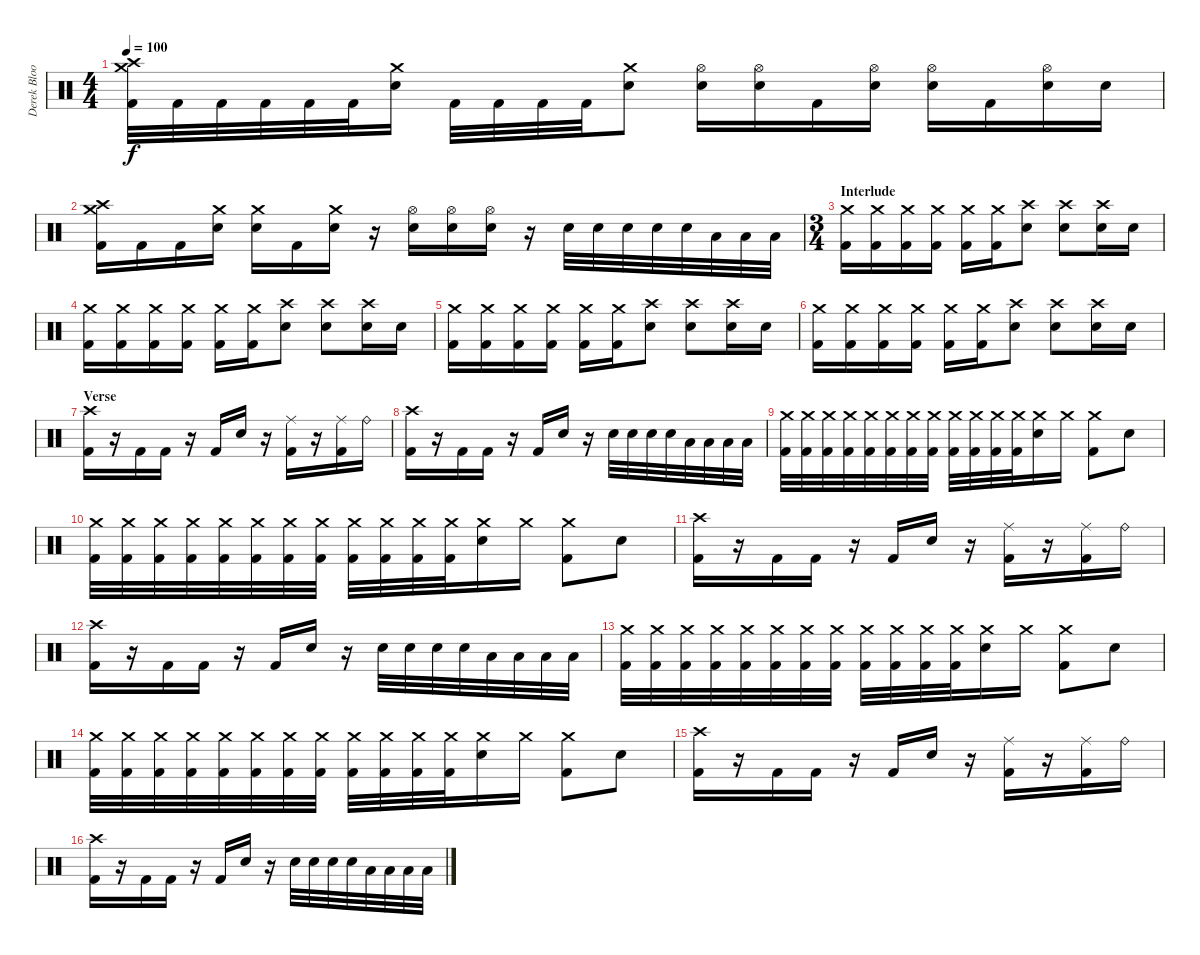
\track ("Derek Bloom (Drums)" "Derek Bloo") {instrument percussion}
\staff {score}
\articulation defaults
\ts (4 4)
\tempo 100
\clef neutral
\ks c
("Crash medium (hit)" "Crash high (hit)" "Kick (hit) 2").32{dy f} "Kick (hit) 2".32 "Kick (hit) 2".32 "Kick (hit) 2".32 "Kick (hit) 2".32 "Kick (hit) 2".32 ("Crash medium (hit)" "Electric Snare (hit)").16 "Kick (hit) 2".32 "Kick (hit) 2".32 "Kick (hit) 2".32 "Kick (hit) 2".32 ("Crash medium (hit)" "Electric Snare (hit)").8 ("Hi-Hat (open)" "Electric Snare (hit)").16 ("Hi-Hat (open)" "Electric Snare (hit)").16 "Kick (hit) 2".16 ("Hi-Hat (open)" "Electric Snare (hit)").16 ("Hi-Hat (open)" "Electric Snare (hit)").16 "Kick (hit) 2".16 ("Hi-Hat (open)" "Electric Snare (hit)").16 "Electric Snare (hit)".16 |
("Crash medium (hit)" "Crash high (hit)" "Kick (hit) 2").16 "Kick (hit) 2".16 "Kick (hit) 2".16 ("Crash medium (hit)" "Electric Snare (hit)").16 ("Crash medium (hit)" "Electric Snare (hit)").16 "Kick (hit) 2".16 ("Crash medium (hit)" "Electric Snare (hit)").16 r.16 ("Hi-Hat (open)" "Electric Snare (hit)").16 ("Hi-Hat (open)" "Electric Snare (hit)").16 ("Hi-Hat (open)" "Electric Snare (hit)").16 r.16 "Electric Snare (hit)".32 "Electric Snare (hit)".32 "Electric Snare (hit)".32 "Electric Snare (hit)".32 "Electric Snare (hit)".32 "Low Tom (hit)".32 "Low Tom (hit)".32 "Low Tom (hit)".32 |
\ts (3 4)
\section ("" "Interlude")
("Crash medium (hit)" "Kick (hit) 2").16 ("Crash medium (hit)" "Kick (hit) 2").16 ("Crash medium (hit)" "Kick (hit) 2").16 ("Crash medium (hit)" "Kick (hit) 2").16 ("Crash medium (hit)" "Kick (hit) 2").16 ("Crash medium (hit)" "Kick (hit) 2").16 ("Crash high (hit)" "Electric Snare (hit)").8 ("Crash high (hit)" "Electric Snare (hit)").8 ("Crash high (hit)" "Electric Snare (hit)").16 "Electric Snare (hit)".16 |
("Crash medium (hit)" "Kick (hit) 2").16 ("Crash medium (hit)" "Kick (hit) 2").16 ("Crash medium (hit)" "Kick (hit) 2").16 ("Crash medium (hit)" "Kick (hit) 2").16 ("Crash medium (hit)" "Kick (hit) 2").16 ("Crash medium (hit)" "Kick (hit) 2").16 ("Crash high (hit)" "Electric Snare (hit)").8 ("Crash high (hit)" "Electric Snare (hit)").8 ("Crash high (hit)" "Electric Snare (hit)").16 "Electric Snare (hit)".16 |
("Crash medium (hit)" "Kick (hit) 2").16 ("Crash medium (hit)" "Kick (hit) 2").16 ("Crash medium (hit)" "Kick (hit) 2").16 ("Crash medium (hit)" "Kick (hit) 2").16 ("Crash medium (hit)" "Kick (hit) 2").16 ("Crash medium (hit)" "Kick (hit) 2").16 ("Crash high (hit)" "Electric Snare (hit)").8 ("Crash high (hit)" "Electric Snare (hit)").8 ("Crash high (hit)" "Electric Snare (hit)").16 "Electric Snare (hit)".16 |
("Crash medium (hit)" "Kick (hit) 2").16 ("Crash medium (hit)" "Kick (hit) 2").16 ("Crash medium (hit)" "Kick (hit) 2").16 ("Crash medium (hit)" "Kick (hit) 2").16 ("Crash medium (hit)" "Kick (hit) 2").16 ("Crash medium (hit)" "Kick (hit) 2").16 ("Crash high (hit)" "Electric Snare (hit)").8 ("Crash high (hit)" "Electric Snare (hit)").8 ("Crash high (hit)" "Electric Snare (hit)").16 "Electric Snare (hit)".16 |
\section ("" "Verse")
("Crash high (hit)" "Kick (hit) 2").16 r.16 "Kick (hit) 2".16 "Kick (hit) 2".16 r.16 "Kick (hit) 2".16 "Electric Snare (hit)".16 r.16 ("Ride (middle)" "Kick (hit) 2").16 r.16 ("Ride (middle)" "Kick (hit) 2").16 "Ride (bell)".16 |
("Crash high (hit)" "Kick (hit) 2").16 r.16 "Kick (hit) 2".16 "Kick (hit) 2".16 r.16 "Kick (hit) 2".16 "Electric Snare (hit)".16 r.16 "Electric Snare (hit)".32 "Electric Snare (hit)".32 "Electric Snare (hit)".32 "Electric Snare (hit)".32 "Low Tom (hit)".32 "Low Tom (hit)".32 "Low Tom (hit)".32 "Low Tom (hit)".32 |
("Crash medium (hit)" "Kick (hit) 2").32 ("Crash medium (hit)" "Kick (hit) 2").32 ("Crash medium (hit)" "Kick (hit) 2").32 ("Crash medium (hit)" "Kick (hit) 2").32 ("Crash medium (hit)" "Kick (hit) 2").32 ("Crash medium (hit)" "Kick (hit) 2").32 ("Crash medium (hit)" "Kick (hit) 2").32 ("Crash medium (hit)" "Kick (hit) 2").32 ("Crash medium (hit)" "Kick (hit) 2").32 ("Crash medium (hit)" "Kick (hit) 2").32 ("Crash medium (hit)" "Kick (hit) 2").32 ("Crash medium (hit)" "Kick (hit) 2").32 ("Crash medium (hit)" "Electric Snare (hit)").16 "Crash medium (hit)".16 ("Crash medium (hit)" "Kick (hit) 2").8 "Electric Snare (hit)".8 |
("Crash medium (hit)" "Kick (hit) 2").32 ("Crash medium (hit)" "Kick (hit) 2").32 ("Crash medium (hit)" "Kick (hit) 2").32 ("Crash medium (hit)" "Kick (hit) 2").32 ("Crash medium (hit)" "Kick (hit) 2").32 ("Crash medium (hit)" "Kick (hit) 2").32 ("Crash medium (hit)" "Kick (hit) 2").32 ("Crash medium (hit)" "Kick (hit) 2").32 ("Crash medium (hit)" "Kick (hit) 2").32 ("Crash medium (hit)" "Kick (hit) 2").32 ("Crash medium (hit)" "Kick (hit) 2").32 ("Crash medium (hit)" "Kick (hit) 2").32 ("Crash medium (hit)" "Electric Snare (hit)").16 "Crash medium (hit)".16 ("Crash medium (hit)" "Kick (hit) 2").8 "Electric Snare (hit)".8 |
("Crash high (hit)" "Kick (hit) 2").16 r.16 "Kick (hit) 2".16 "Kick (hit) 2".16 r.16 "Kick (hit) 2".16 "Electric Snare (hit)".16 r.16 ("Ride (middle)" "Kick (hit) 2").16 r.16 ("Ride (middle)" "Kick (hit) 2").16 "Ride (bell)".16 |
("Crash high (hit)" "Kick (hit) 2").16 r.16 "Kick (hit) 2".16 "Kick (hit) 2".16 r.16 "Kick (hit) 2".16 "Electric Snare (hit)".16 r.16 "Electric Snare (hit)".32 "Electric Snare (hit)".32 "Electric Snare (hit)".32 "Electric Snare (hit)".32 "Low Tom (hit)".32 "Low Tom (hit)".32 "Low Tom (hit)".32 "Low Tom (hit)".32 |
("Crash medium (hit)" "Kick (hit) 2").32 ("Crash medium (hit)" "Kick (hit) 2").32 ("Crash medium (hit)" "Kick (hit) 2").32 ("Crash medium (hit)" "Kick (hit) 2").32 ("Crash medium (hit)" "Kick (hit) 2").32 ("Crash medium (hit)" "Kick (hit) 2").32 ("Crash medium (hit)" "Kick (hit) 2").32 ("Crash medium (hit)" "Kick (hit) 2").32 ("Crash medium (hit)" "Kick (hit) 2").32 ("Crash medium (hit)" "Kick (hit) 2").32 ("Crash medium (hit)" "Kick (hit) 2").32 ("Crash medium (hit)" "Kick (hit) 2").32 ("Crash medium (hit)" "Electric Snare (hit)").16 "Crash medium (hit)".16 ("Crash medium (hit)" "Kick (hit) 2").8 "Electric Snare (hit)".8 |
("Crash medium (hit)" "Kick (hit) 2").32 ("Crash medium (hit)" "Kick (hit) 2").32 ("Crash medium (hit)" "Kick (hit) 2").32 ("Crash medium (hit)" "Kick (hit) 2").32 ("Crash medium (hit)" "Kick (hit) 2").32 ("Crash medium (hit)" "Kick (hit) 2").32 ("Crash medium (hit)" "Kick (hit) 2").32 ("Crash medium (hit)" "Kick (hit) 2").32 ("Crash medium (hit)" "Kick (hit) 2").32 ("Crash medium (hit)" "Kick (hit) 2").32 ("Crash medium (hit)" "Kick (hit) 2").32 ("Crash medium (hit)" "Kick (hit) 2").32 ("Crash medium (hit)" "Electric Snare (hit)").16 "Crash medium (hit)".16 ("Crash medium (hit)" "Kick (hit) 2").8 "Electric Snare (hit)".8 |
("Crash high (hit)" "Kick (hit) 2").16 r.16 "Kick (hit) 2".16 "Kick (hit) 2".16 r.16 "Kick (hit) 2".16 "Electric Snare (hit)".16 r.16 ("Ride (middle)" "Kick (hit) 2").16 r.16 ("Ride (middle)" "Kick (hit) 2").16 "Ride (bell)".16 |
("Crash high (hit)" "Kick (hit) 2").16 r.16 "Kick (hit) 2".16 "Kick (hit) 2".16 r.16 "Kick (hit) 2".16 "Electric Snare (hit)".16 r.16 "Electric Snare (hit)".32 "Electric Snare (hit)".32 "Electric Snare (hit)".32 "Electric Snare (hit)".32 "Low Tom (hit)".32 "Low Tom (hit)".32 "Low Tom (hit)".32 "Low Tom (hit)".32
